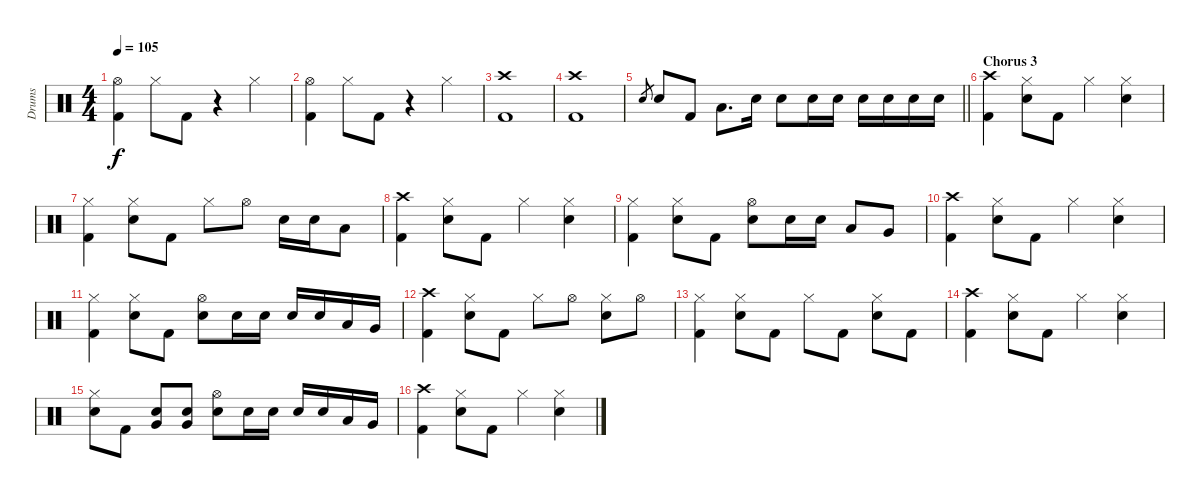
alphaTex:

\track ("Drums" "Drums") {instrument percussion}
\staff {score}
\articulation defaults
\ts (4 4)
\tempo 105
\clef neutral
\ks c
("Hi-Hat (open)" "Kick (hit) 2").4{dy f} "Hi-Hat (closed)".8 "Kick (hit) 2".8 r.4 "Hi-Hat (closed)".4 |
("Hi-Hat (open)" "Kick (hit) 2").4 "Hi-Hat (closed)".8 "Kick (hit) 2".8 r.4 "Hi-Hat (closed)".4 |
("Crash high (hit)" "Kick (hit) 2").1 |
("Crash high (hit)" "Kick (hit) 2").1 |
\barLineRight lightlight "Snare (hit) 2".8{gr} "Snare (hit) 2".8 "Kick (hit) 2".8 "Low Tom (hit)".8{d} "Snare (hit) 2".16 "Snare (hit) 2".8 "Snare (hit) 2".16 "Snare (hit) 2".16 "Snare (hit) 2".16 "Snare (hit) 2".16 "Snare (hit) 2".16 "Snare (hit) 2".16
|
\section ("" "Chorus 3")
("Crash high (hit)" "Kick (hit) 2").4 ("Hi-Hat (closed)" "Snare (hit) 2").8 "Kick (hit) 2".8 "Hi-Hat (closed)".4 ("Hi-Hat (closed)" "Snare (hit) 2").4 |
("Hi-Hat (closed)" "Kick (hit) 2").4 ("Hi-Hat (closed)" "Snare (hit) 2").8 "Kick (hit) 2".8 "Hi-Hat (closed)".8 "Hi-Hat (open)".8 "Snare (hit) 2".16 "Snare (hit) 2".16 "Low Tom (hit)".8 |
("Crash high (hit)" "Kick (hit) 2").4 ("Hi-Hat (closed)" "Snare (hit) 2").8 "Kick (hit) 2".8 "Hi-Hat (closed)".4 ("Hi-Hat (closed)" "Snare (hit) 2").4 |
("Hi-Hat (closed)" "Kick (hit) 2").4 ("Hi-Hat (closed)" "Snare (hit) 2").8 "Kick (hit) 2".8 ("Hi-Hat (open)" "Snare (hit) 2").8 "Snare (hit) 2".16 "Snare (hit) 2".16 "Low Tom (hit)".8 "Very Low Tom (hit)".8 |
("Crash high (hit)" "Kick (hit) 2").4 ("Hi-Hat (closed)" "Snare (hit) 2").8 "Kick (hit) 2".8 "Hi-Hat (closed)".4 ("Hi-Hat (closed)" "Snare (hit) 2").4 |
("Hi-Hat (closed)" "Kick (hit) 2").4 ("Hi-Hat (closed)" "Snare (hit) 2").8 "Kick (hit) 2".8 ("Hi-Hat (open)" "Snare (hit) 2").8 "Snare (hit) 2".16 "Snare (hit) 2".16 "Snare (hit) 2".16 "Snare (hit) 2".16 "Low Tom (hit)".16 "Very Low Tom (hit)".16 |
("Crash high (hit)" "Kick (hit) 2").4 ("Hi-Hat (closed)" "Snare (hit) 2").8 "Kick (hit) 2".8 "Hi-Hat (closed)".8 "Hi-Hat (open)".8 ("Hi-Hat (closed)" "Snare (hit) 2").8 "Hi-Hat (open)".8 |
("Hi-Hat (closed)" "Kick (hit) 2").4 ("Hi-Hat (closed)" "Snare (hit) 2").8 "Kick (hit) 2".8 "Hi-Hat (closed)".8 "Kick (hit) 2".8 ("Hi-Hat (closed)" "Snare (hit) 2").8 "Kick (hit) 2".8 |
("Crash high (hit)" "Kick (hit) 2").4 ("Hi-Hat (closed)" "Snare (hit) 2").8 "Kick (hit) 2".8 "Hi-Hat (closed)".4 ("Hi-Hat (closed)" "Snare (hit) 2").4 |
("Hi-Hat (closed)" "Snare (hit) 2").8 "Kick (hit) 2".8 ("Snare (hit) 2" "Very Low Tom (hit)").8 ("Snare (hit) 2" "Very Low Tom (hit)").8 ("Hi-Hat (open)" "Snare (hit) 2").8 "Snare (hit) 2".16 "Snare (hit) 2".16 "Snare (hit) 2".16 "Snare (hit) 2".16 "Low Tom (hit)".16 "Very Low Tom (hit)".16 |
("Crash high (hit)" "Kick (hit) 2").4 ("Hi-Hat (closed)" "Snare (hit) 2").8 "Kick (hit) 2".8 "Hi-Hat (closed)".4 ("Hi-Hat (closed)" "Snare (hit) 2").4
